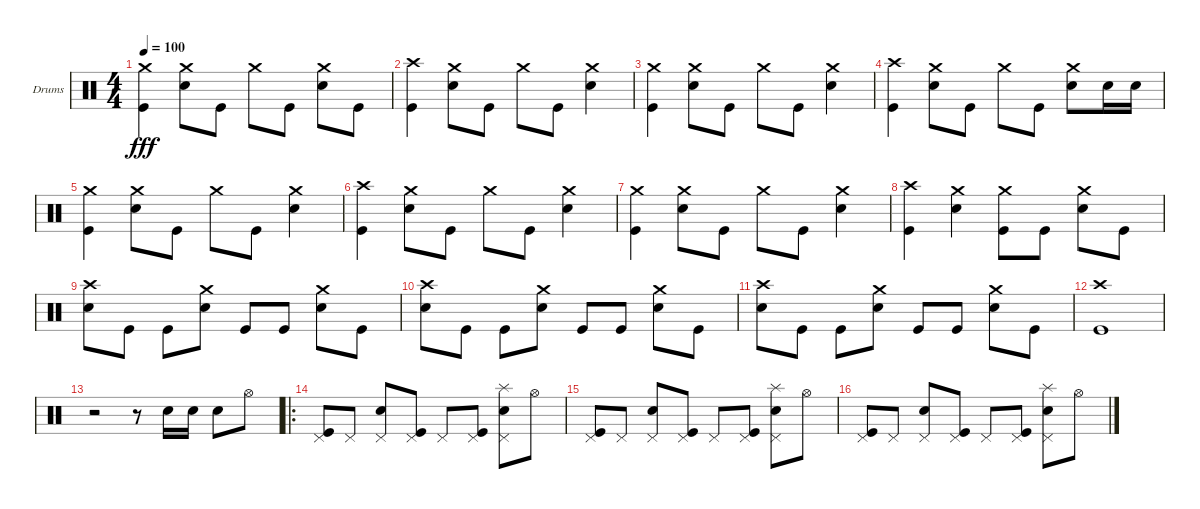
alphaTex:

\defaultSystemsLayout 4
\bracketExtendMode groupsimilarinstruments
\firstSystemTrackNameOrientation horizontal
\otherSystemsTrackNameOrientation horizontal
\track ("Drumkit" "Drums") {instrument percussion}
\staff {score}
\articulation defaults
\ts (4 4)
\tempo 100
\clef neutral
\scale
0.333333
\ks c
("Crash medium (hit)" "Kick (hit)").4{dy fff} ("Crash medium (hit)" "Snare (hit) 2").8 "Kick (hit)".8 "Crash medium (hit)".8 "Kick (hit)".8 ("Crash medium (hit)" "Snare (hit) 2").8 "Kick (hit)".8 |
\scale
0.333333 ("Crash high (hit)" "Kick (hit)").4 ("Crash medium (hit)" "Snare (hit) 2").8 "Kick (hit)".8 "Crash medium (hit)".8 "Kick (hit)".8 ("Crash medium (hit)" "Snare (hit) 2").4 |
\scale
0.333333 ("Crash medium (hit)" "Kick (hit)").4 ("Crash medium (hit)" "Snare (hit) 2").8 "Kick (hit)".8 "Crash medium (hit)".8 "Kick (hit)".8 ("Crash medium (hit)" "Snare (hit) 2").4 |
\scale
0.333333 ("Crash high (hit)" "Kick (hit)").4 ("Crash medium (hit)" "Snare (hit) 2").8 "Kick (hit)".8 "Crash medium (hit)".8 "Kick (hit)".8 ("Crash medium (hit)" "Snare (hit) 2").8 "Snare (hit) 2".16 "Snare (hit) 2".16 |
\scale
0.333333 ("Crash medium (hit)" "Kick (hit)").4 ("Crash medium (hit)" "Snare (hit) 2").8 "Kick (hit)".8 "Crash medium (hit)".8 "Kick (hit)".8 ("Crash medium (hit)" "Snare (hit) 2").4 |
\scale
0.333333 ("Crash high (hit)" "Kick (hit)").4 ("Crash medium (hit)" "Snare (hit) 2").8 "Kick (hit)".8 "Crash medium (hit)".8 "Kick (hit)".8 ("Crash medium (hit)" "Snare (hit) 2").4 |
\scale
0.333333 ("Crash medium (hit)" "Kick (hit)").4 ("Crash medium (hit)" "Snare (hit) 2").8 "Kick (hit)".8 "Crash medium (hit)".8 "Kick (hit)".8 ("Crash medium (hit)" "Snare (hit) 2").4 |
\scale
0.333333 ("Crash high (hit)" "Kick (hit)").4 ("Crash medium (hit)" "Snare (hit) 2").4 ("Crash medium (hit)" "Kick (hit)").8 "Kick (hit)".8 ("Crash medium (hit)" "Snare (hit) 2").8 "Kick (hit)".8 |
\scale
0.333333 ("Crash high (hit)" "Snare (hit) 2").8 "Kick (hit)".8 "Kick (hit)".8 ("Crash medium (hit)" "Snare (hit) 2").8 "Kick (hit)".8 "Kick (hit)".8 ("Crash medium (hit)" "Snare (hit) 2").8 "Kick (hit)".8 |
\scale
0.333333 ("Crash high (hit)" "Snare (hit) 2").8 "Kick (hit)".8 "Kick (hit)".8 ("Crash medium (hit)" "Snare (hit) 2").8 "Kick (hit)".8 "Kick (hit)".8 ("Crash medium (hit)" "Snare (hit) 2").8 "Kick (hit)".8 |
\scale
0.333333 ("Crash high (hit)" "Snare (hit) 2").8 "Kick (hit)".8 "Kick (hit)".8 ("Crash medium (hit)" "Snare (hit) 2").8 "Kick (hit)".8 "Kick (hit)".8 ("Crash medium (hit)" "Snare (hit) 2").8 "Kick (hit)".8 |
\scale
0.311475 ("Crash high (hit)" "Kick (hit)").1 |
\scale
0.311475 r.2 r.8 "Snare (hit) 2".16 "Snare (hit) 2".16 "Snare (hit) 2".8 "Hi-Hat (open)".8 |
\ro
\scale
0.377049 ("Pedal Hi-Hat (hit)" "Kick (hit)").8 "Pedal Hi-Hat (hit)".8 ("Pedal Hi-Hat (hit)" "Snare (hit) 2").8 ("Pedal Hi-Hat (hit)" "Kick (hit)").8 "Pedal Hi-Hat (hit)".8 ("Pedal Hi-Hat (hit)" "Kick (hit)").8 ("Pedal Hi-Hat (hit)" "Splash (hit)" "Snare (hit) 2").8 "Hi-Hat (open)".8 |
\scale
0.322034 ("Pedal Hi-Hat (hit)" "Kick (hit)").8 "Pedal Hi-Hat (hit)".8 ("Pedal Hi-Hat (hit)" "Snare (hit) 2").8 ("Pedal Hi-Hat (hit)" "Kick (hit)").8 "Pedal Hi-Hat (hit)".8 ("Pedal Hi-Hat (hit)" "Kick (hit)").8 ("Pedal Hi-Hat (hit)" "Splash (hit)" "Snare (hit) 2").8 "Hi-Hat (open)".8 |
\scale
0.322034 ("Pedal Hi-Hat (hit)" "Kick (hit)").8 "Pedal Hi-Hat (hit)".8 ("Pedal Hi-Hat (hit)" "Snare (hit) 2").8 ("Pedal Hi-Hat (hit)" "Kick (hit)").8 "Pedal Hi-Hat (hit)".8 ("Pedal Hi-Hat (hit)" "Kick (hit)").8 ("Pedal Hi-Hat (hit)" "Splash (hit)" "Snare (hit) 2").8 "Hi-Hat (open)".8
